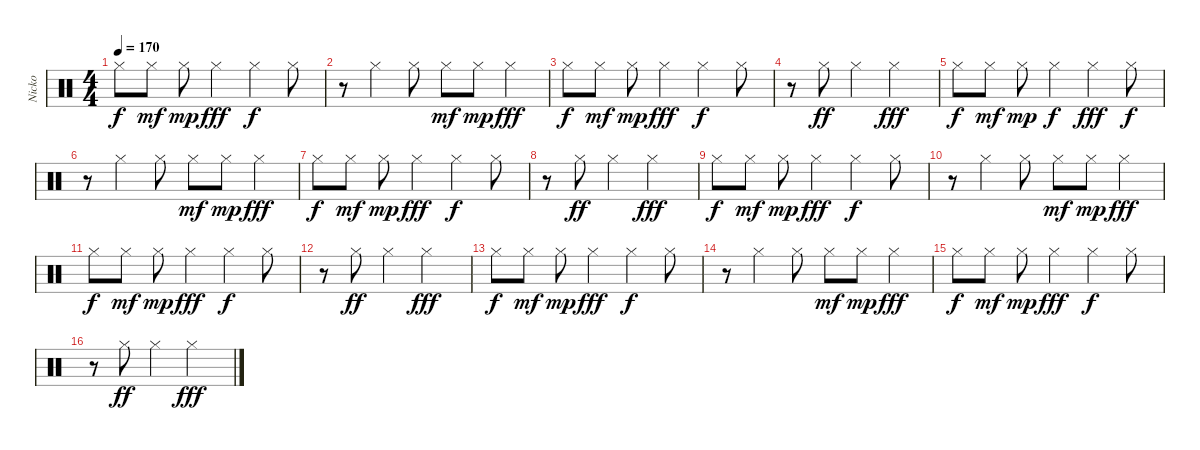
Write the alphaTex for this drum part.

\track ("Nicko" "Nicko") {instrument percussion}
\staff {score}
\articulation defaults
\ts (4 4)
\tempo 170
\clef neutral
\ks c "Hi-Hat (closed)".8{dy f} "Hi-Hat (closed)".8{dy mf} "Hi-Hat (closed)".8{dy mp} "Hi-Hat (closed)".4{dy fff} "Hi-Hat (closed)".4{dy f} "Hi-Hat (closed)".8
|
r.8 "Hi-Hat (closed)".4 "Hi-Hat (closed)".8 "Hi-Hat (closed)".8{dy mf} "Hi-Hat (closed)".8{dy mp} "Hi-Hat (closed)".4{dy fff} |
"Hi-Hat (closed)".8{dy f} "Hi-Hat (closed)".8{dy mf} "Hi-Hat (closed)".8{dy mp} "Hi-Hat (closed)".4{dy fff} "Hi-Hat (closed)".4{dy f} "Hi-Hat (closed)".8 |
r.8 "Hi-Hat (closed)".8{dy ff} "Hi-Hat (closed)".4 "Hi-Hat (closed)".2{dy fff} |
"Hi-Hat (closed)".8{dy f} "Hi-Hat (closed)".8{dy mf} "Hi-Hat (closed)".8{dy mp} "Hi-Hat (closed)".4{dy f} "Hi-Hat (closed)".4{dy fff} "Hi-Hat (closed)".8{dy f} |
r.8 "Hi-Hat (closed)".4 "Hi-Hat (closed)".8 "Hi-Hat (closed)".8{dy mf} "Hi-Hat (closed)".8{dy mp} "Hi-Hat (closed)".4{dy fff} |
"Hi-Hat (closed)".8{dy f} "Hi-Hat (closed)".8{dy mf} "Hi-Hat (closed)".8{dy mp} "Hi-Hat (closed)".4{dy fff} "Hi-Hat (closed)".4{dy f} "Hi-Hat (closed)".8 |
r.8 "Hi-Hat (closed)".8{dy ff} "Hi-Hat (closed)".4 "Hi-Hat (closed)".2{dy fff} |
"Hi-Hat (closed)".8{dy f} "Hi-Hat (closed)".8{dy mf} "Hi-Hat (closed)".8{dy mp} "Hi-Hat (closed)".4{dy fff} "Hi-Hat (closed)".4{dy f} "Hi-Hat (closed)".8 |
r.8 "Hi-Hat (closed)".4 "Hi-Hat (closed)".8 "Hi-Hat (closed)".8{dy mf} "Hi-Hat (closed)".8{dy mp} "Hi-Hat (closed)".4{dy fff} |
"Hi-Hat (closed)".8{dy f} "Hi-Hat (closed)".8{dy mf} "Hi-Hat (closed)".8{dy mp} "Hi-Hat (closed)".4{dy fff} "Hi-Hat (closed)".4{dy f} "Hi-Hat (closed)".8 |
r.8 "Hi-Hat (closed)".8{dy ff} "Hi-Hat (closed)".4 "Hi-Hat (closed)".2{dy fff} |
"Hi-Hat (closed)".8{dy f} "Hi-Hat (closed)".8{dy mf} "Hi-Hat (closed)".8{dy mp} "Hi-Hat (closed)".4{dy fff} "Hi-Hat (closed)".4{dy f} "Hi-Hat (closed)".8 |
r.8 "Hi-Hat (closed)".4 "Hi-Hat (closed)".8 "Hi-Hat (closed)".8{dy mf} "Hi-Hat (closed)".8{dy mp} "Hi-Hat (closed)".4{dy fff} |
"Hi-Hat (closed)".8{dy f} "Hi-Hat (closed)".8{dy mf} "Hi-Hat (closed)".8{dy mp} "Hi-Hat (closed)".4{dy fff} "Hi-Hat (closed)".4{dy f} "Hi-Hat (closed)".8 |
r.8 "Hi-Hat (closed)".8{dy ff} "Hi-Hat (closed)".4 "Hi-Hat (closed)".2{dy fff}
